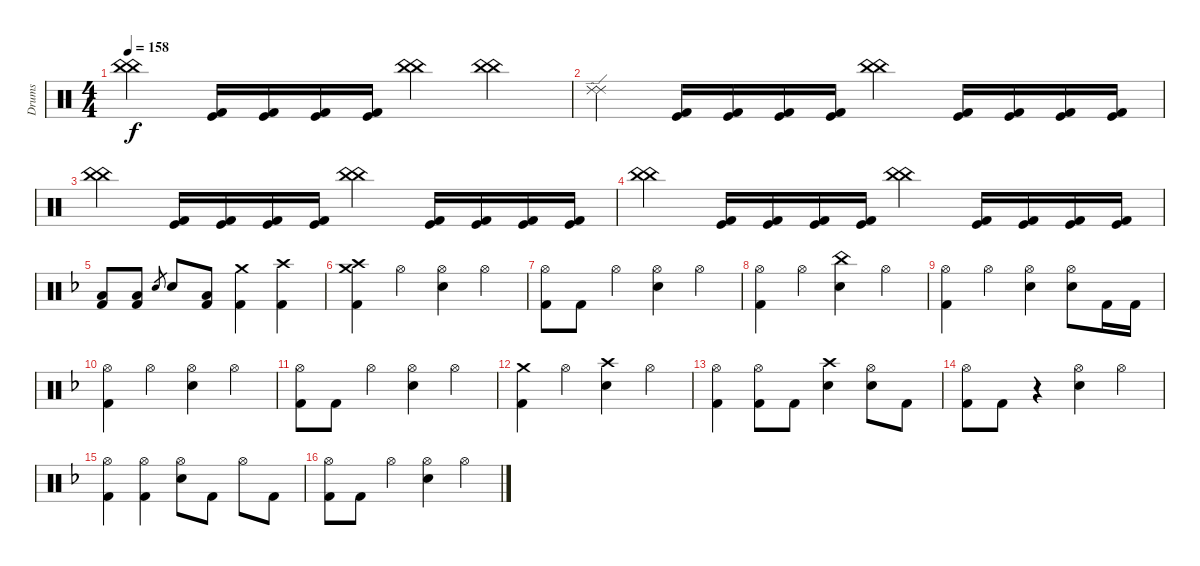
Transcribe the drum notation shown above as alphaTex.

\track ("Drums" "Drums") {instrument percussion}
\staff {score}
\articulation defaults
\ts (4 4)
\tempo 158
\clef neutral
\ks c
("China (hit)" "China (hit)").4{dy f} ("Kick (hit)" "Kick (hit) 2").16 ("Kick (hit)" "Kick (hit) 2").16 ("Kick (hit)" "Kick (hit) 2").16 ("Kick (hit)" "Kick (hit) 2").16 ("China (hit)" "China (hit)").4 ("China (hit)" "China (hit)").4 |
("Ride (edge) 2" "Ride (edge) 2").4 ("Kick (hit)" "Kick (hit) 2").16 ("Kick (hit)" "Kick (hit) 2").16 ("Kick (hit)" "Kick (hit) 2").16 ("Kick (hit)" "Kick (hit) 2").16 ("China (hit)" "China (hit)").4 ("Kick (hit)" "Kick (hit) 2").16 ("Kick (hit)" "Kick (hit) 2").16 ("Kick (hit)" "Kick (hit) 2").16 ("Kick (hit)" "Kick (hit) 2").16 |
("China (hit)" "China (hit)").4 ("Kick (hit)" "Kick (hit) 2").16 ("Kick (hit)" "Kick (hit) 2").16 ("Kick (hit)" "Kick (hit) 2").16 ("Kick (hit)" "Kick (hit) 2").16 ("China (hit)" "China (hit)").4 ("Kick (hit)" "Kick (hit) 2").16 ("Kick (hit)" "Kick (hit) 2").16 ("Kick (hit)" "Kick (hit) 2").16 ("Kick (hit)" "Kick (hit) 2").16 |
("China (hit)" "China (hit)").4 ("Kick (hit)" "Kick (hit) 2").16 ("Kick (hit)" "Kick (hit) 2").16 ("Kick (hit)" "Kick (hit) 2").16 ("Kick (hit)" "Kick (hit) 2").16 ("China (hit)" "China (hit)").4 ("Kick (hit)" "Kick (hit) 2").16 ("Kick (hit)" "Kick (hit) 2").16 ("Kick (hit)" "Kick (hit) 2").16 ("Kick (hit)" "Kick (hit) 2").16 |
\ks f
("Low Tom (hit)" "Kick (hit) 2").8 ("Low Tom (hit)" "Kick (hit) 2").8 "Snare (hit) 2".8{gr} "Snare (hit) 2".8 ("Low Tom (hit)" "Kick (hit) 2").8 ("Crash medium (hit)" "Kick (hit) 2").4 ("Crash high (hit)" "Kick (hit) 2").4 |
("Crash medium (hit)" "Crash high (hit)" "Kick (hit) 2").4 "Hi-Hat (open)".4 ("Hi-Hat (open)" "Snare (hit) 2").4 "Hi-Hat (open)".4 |
("Hi-Hat (open)" "Kick (hit) 2").8 "Kick (hit) 2".8 "Hi-Hat (open)".4 ("Hi-Hat (open)" "Snare (hit) 2").4 "Hi-Hat (open)".4 |
("Hi-Hat (open)" "Kick (hit) 2").4 "Hi-Hat (open)".4 ("China (hit)" "Snare (hit) 2").4 "Hi-Hat (open)".4 |
("Hi-Hat (open)" "Kick (hit) 2").4 "Hi-Hat (open)".4 ("Hi-Hat (open)" "Snare (hit) 2").4 ("Hi-Hat (open)" "Snare (hit) 2").8 "Kick (hit) 2".16 "Kick (hit) 2".16 |
("Hi-Hat (open)" "Kick (hit) 2").4 "Hi-Hat (open)".4 ("Hi-Hat (open)" "Snare (hit) 2").4 "Hi-Hat (open)".4 |
("Hi-Hat (open)" "Kick (hit) 2").8 "Kick (hit) 2".8 "Hi-Hat (open)".4 ("Hi-Hat (open)" "Snare (hit) 2").4 "Hi-Hat (open)".4 |
("Crash medium (hit)" "Kick (hit) 2").4 "Hi-Hat (open)".4 ("Crash high (hit)" "Snare (hit) 2").4 "Hi-Hat (open)".4 |
("Hi-Hat (open)" "Kick (hit) 2").4 ("Hi-Hat (open)" "Kick (hit) 2").8 "Kick (hit) 2".8 ("Crash high (hit)" "Snare (hit) 2").4 ("Hi-Hat (open)" "Snare (hit) 2").8 "Kick (hit) 2".8 |
("Hi-Hat (open)" "Kick (hit) 2").8 "Kick (hit) 2".8 r.4 ("Hi-Hat (open)" "Electric Snare (hit)").4 "Hi-Hat (open)".4 |
("Hi-Hat (open)" "Kick (hit) 2").4 ("Hi-Hat (open)" "Kick (hit) 2").4 ("Hi-Hat (open)" "Electric Snare (hit)").8 "Kick (hit) 2".8 "Hi-Hat (open)".8 "Kick (hit) 2".8 |
("Hi-Hat (open)" "Kick (hit) 2").8 "Kick (hit) 2".8 "Hi-Hat (open)".4 ("Hi-Hat (open)" "Electric Snare (hit)").4 "Hi-Hat (open)".4
